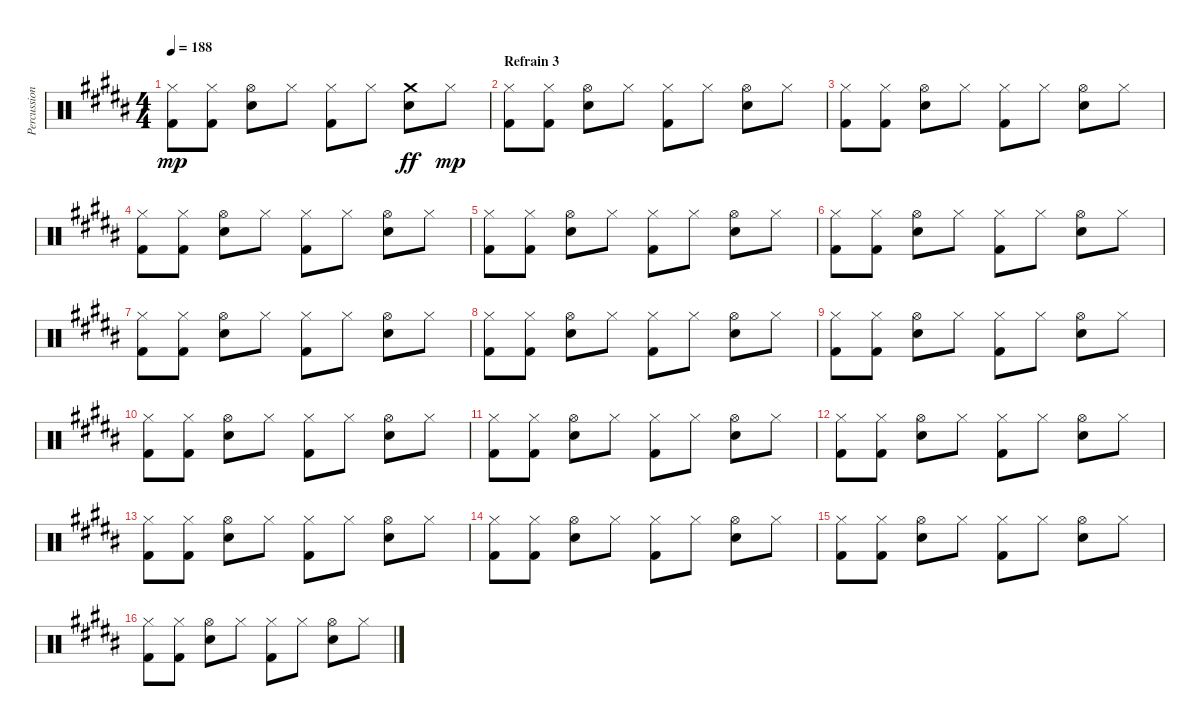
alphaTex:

\track ("Percussions" "Percussion") {instrument percussion}
\staff {score}
\articulation defaults
\ts (4 4)
\tempo 188
\clef neutral
\ks b
("Hi-Hat (closed)" "Kick (hit) 2").8{dy mp} ("Hi-Hat (closed)" "Kick (hit) 2").8 ("Hi-Hat (open)" "Snare (hit) 2").8 "Hi-Hat (closed)".8 ("Hi-Hat (closed)" "Kick (hit) 2").8 "Hi-Hat (closed)".8 ("Crash medium (hit)" "Snare (hit) 2").8{dy ff} "Hi-Hat (closed)".8{dy mp} |
\section ("" "Refrain 3")
("Hi-Hat (closed)" "Kick (hit) 2").8 ("Hi-Hat (closed)" "Kick (hit) 2").8 ("Hi-Hat (open)" "Snare (hit) 2").8 "Hi-Hat (closed)".8 ("Hi-Hat (closed)" "Kick (hit) 2").8 "Hi-Hat (closed)".8 ("Hi-Hat (open)" "Snare (hit) 2").8 "Hi-Hat (closed)".8 |
("Hi-Hat (closed)" "Kick (hit) 2").8 ("Hi-Hat (closed)" "Kick (hit) 2").8 ("Hi-Hat (open)" "Snare (hit) 2").8 "Hi-Hat (closed)".8 ("Hi-Hat (closed)" "Kick (hit) 2").8 "Hi-Hat (closed)".8 ("Hi-Hat (open)" "Snare (hit) 2").8 "Hi-Hat (closed)".8 |
("Hi-Hat (closed)" "Kick (hit) 2").8 ("Hi-Hat (closed)" "Kick (hit) 2").8 ("Hi-Hat (open)" "Snare (hit) 2").8 "Hi-Hat (closed)".8 ("Hi-Hat (closed)" "Kick (hit) 2").8 "Hi-Hat (closed)".8 ("Hi-Hat (open)" "Snare (hit) 2").8 "Hi-Hat (closed)".8 |
("Hi-Hat (closed)" "Kick (hit) 2").8 ("Hi-Hat (closed)" "Kick (hit) 2").8 ("Hi-Hat (open)" "Snare (hit) 2").8 "Hi-Hat (closed)".8 ("Hi-Hat (closed)" "Kick (hit) 2").8 "Hi-Hat (closed)".8 ("Hi-Hat (open)" "Snare (hit) 2").8 "Hi-Hat (closed)".8 |
("Hi-Hat (closed)" "Kick (hit) 2").8 ("Hi-Hat (closed)" "Kick (hit) 2").8 ("Hi-Hat (open)" "Snare (hit) 2").8 "Hi-Hat (closed)".8 ("Hi-Hat (closed)" "Kick (hit) 2").8 "Hi-Hat (closed)".8 ("Hi-Hat (open)" "Snare (hit) 2").8 "Hi-Hat (closed)".8 |
("Hi-Hat (closed)" "Kick (hit) 2").8 ("Hi-Hat (closed)" "Kick (hit) 2").8 ("Hi-Hat (open)" "Snare (hit) 2").8 "Hi-Hat (closed)".8 ("Hi-Hat (closed)" "Kick (hit) 2").8 "Hi-Hat (closed)".8 ("Hi-Hat (open)" "Snare (hit) 2").8 "Hi-Hat (closed)".8 |
("Hi-Hat (closed)" "Kick (hit) 2").8 ("Hi-Hat (closed)" "Kick (hit) 2").8 ("Hi-Hat (open)" "Snare (hit) 2").8 "Hi-Hat (closed)".8 ("Hi-Hat (closed)" "Kick (hit) 2").8 "Hi-Hat (closed)".8 ("Hi-Hat (open)" "Snare (hit) 2").8 "Hi-Hat (closed)".8 |
("Hi-Hat (closed)" "Kick (hit) 2").8 ("Hi-Hat (closed)" "Kick (hit) 2").8 ("Hi-Hat (open)" "Snare (hit) 2").8 "Hi-Hat (closed)".8 ("Hi-Hat (closed)" "Kick (hit) 2").8 "Hi-Hat (closed)".8 ("Hi-Hat (open)" "Snare (hit) 2").8 "Hi-Hat (closed)".8 |
("Hi-Hat (closed)" "Kick (hit) 2").8{volume 11} ("Hi-Hat (closed)" "Kick (hit) 2").8 ("Hi-Hat (open)" "Snare (hit) 2").8 "Hi-Hat (closed)".8 ("Hi-Hat (closed)" "Kick (hit) 2").8 "Hi-Hat (closed)".8 ("Hi-Hat (open)" "Snare (hit) 2").8 "Hi-Hat (closed)".8 |
("Hi-Hat (closed)" "Kick (hit) 2").8 ("Hi-Hat (closed)" "Kick (hit) 2").8 ("Hi-Hat (open)" "Snare (hit) 2").8 "Hi-Hat (closed)".8 ("Hi-Hat (closed)" "Kick (hit) 2").8 "Hi-Hat (closed)".8 ("Hi-Hat (open)" "Snare (hit) 2").8 "Hi-Hat (closed)".8 |
("Hi-Hat (closed)" "Kick (hit) 2").8 ("Hi-Hat (closed)" "Kick (hit) 2").8 ("Hi-Hat (open)" "Snare (hit) 2").8 "Hi-Hat (closed)".8 ("Hi-Hat (closed)" "Kick (hit) 2").8 "Hi-Hat (closed)".8 ("Hi-Hat (open)" "Snare (hit) 2").8 "Hi-Hat (closed)".8 |
("Hi-Hat (closed)" "Kick (hit) 2").8 ("Hi-Hat (closed)" "Kick (hit) 2").8 ("Hi-Hat (open)" "Snare (hit) 2").8 "Hi-Hat (closed)".8 ("Hi-Hat (closed)" "Kick (hit) 2").8 "Hi-Hat (closed)".8 ("Hi-Hat (open)" "Snare (hit) 2").8 "Hi-Hat (closed)".8 |
("Hi-Hat (closed)" "Kick (hit) 2").8{volume 7} ("Hi-Hat (closed)" "Kick (hit) 2").8 ("Hi-Hat (open)" "Snare (hit) 2").8 "Hi-Hat (closed)".8 ("Hi-Hat (closed)" "Kick (hit) 2").8 "Hi-Hat (closed)".8 ("Hi-Hat (open)" "Snare (hit) 2").8 "Hi-Hat (closed)".8 |
("Hi-Hat (closed)" "Kick (hit) 2").8 ("Hi-Hat (closed)" "Kick (hit) 2").8 ("Hi-Hat (open)" "Snare (hit) 2").8 "Hi-Hat (closed)".8 ("Hi-Hat (closed)" "Kick (hit) 2").8 "Hi-Hat (closed)".8 ("Hi-Hat (open)" "Snare (hit) 2").8 "Hi-Hat (closed)".8 |
("Hi-Hat (closed)" "Kick (hit) 2").8 ("Hi-Hat (closed)" "Kick (hit) 2").8 ("Hi-Hat (open)" "Snare (hit) 2").8 "Hi-Hat (closed)".8 ("Hi-Hat (closed)" "Kick (hit) 2").8 "Hi-Hat (closed)".8 ("Hi-Hat (open)" "Snare (hit) 2").8 "Hi-Hat (closed)".8
